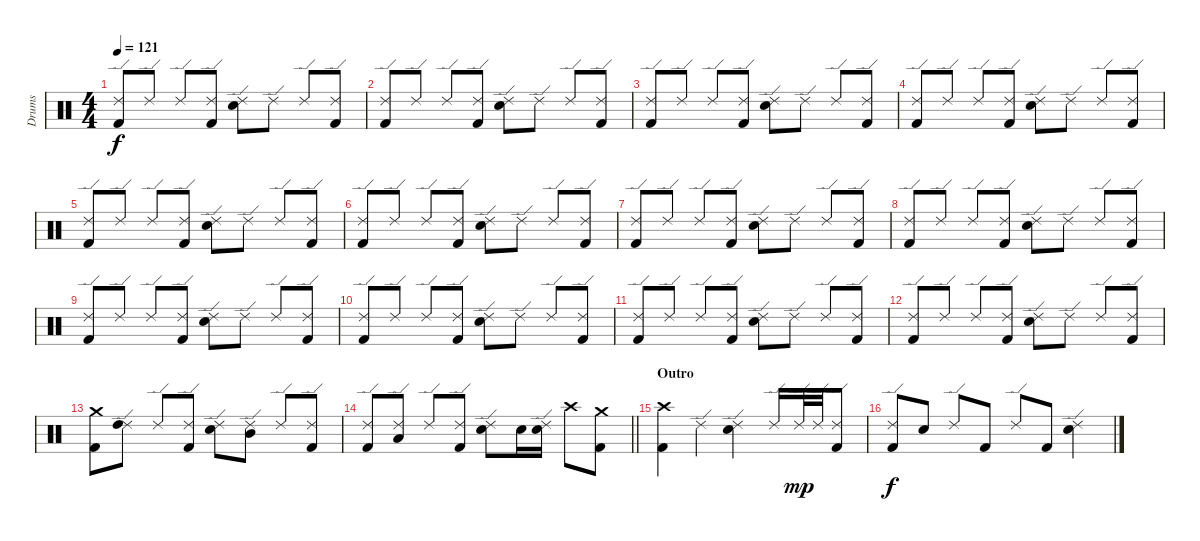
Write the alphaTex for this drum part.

\track ("Drums" "Drums") {instrument percussion}
\staff {score}
\articulation defaults
\ts (4 4)
\tempo 121
\clef neutral
\ks c
("Ride (edge) 2" "Kick (hit) 2").8{dy f} "Ride (edge) 2".8 "Ride (edge) 2".8 ("Ride (edge) 2" "Kick (hit) 2").8 ("Ride (edge) 2" "Electric Snare (hit)").8 "Ride (edge) 2".8 "Ride (edge) 2".8 ("Ride (edge) 2" "Kick (hit) 2").8 |
("Ride (edge) 2" "Kick (hit) 2").8 "Ride (edge) 2".8 "Ride (edge) 2".8 ("Ride (edge) 2" "Kick (hit) 2").8 ("Ride (edge) 2" "Electric Snare (hit)").8 "Ride (edge) 2".8 "Ride (edge) 2".8 ("Ride (edge) 2" "Kick (hit) 2").8 |
("Ride (edge) 2" "Kick (hit) 2").8 "Ride (edge) 2".8 "Ride (edge) 2".8 ("Ride (edge) 2" "Kick (hit) 2").8 ("Ride (edge) 2" "Electric Snare (hit)").8 "Ride (edge) 2".8 "Ride (edge) 2".8 ("Ride (edge) 2" "Kick (hit) 2").8 |
("Ride (edge) 2" "Kick (hit) 2").8 "Ride (edge) 2".8 "Ride (edge) 2".8 ("Ride (edge) 2" "Kick (hit) 2").8 ("Ride (edge) 2" "Electric Snare (hit)").8 "Ride (edge) 2".8 "Ride (edge) 2".8 ("Ride (edge) 2" "Kick (hit) 2").8 |
("Ride (edge) 2" "Kick (hit) 2").8 "Ride (edge) 2".8 "Ride (edge) 2".8 ("Ride (edge) 2" "Kick (hit) 2").8 ("Ride (edge) 2" "Electric Snare (hit)").8 "Ride (edge) 2".8 "Ride (edge) 2".8 ("Ride (edge) 2" "Kick (hit) 2").8 |
("Ride (edge) 2" "Kick (hit) 2").8 "Ride (edge) 2".8 "Ride (edge) 2".8 ("Ride (edge) 2" "Kick (hit) 2").8 ("Ride (edge) 2" "Electric Snare (hit)").8 "Ride (edge) 2".8 "Ride (edge) 2".8 ("Ride (edge) 2" "Kick (hit) 2").8 |
("Ride (edge) 2" "Kick (hit) 2").8 "Ride (edge) 2".8 "Ride (edge) 2".8 ("Ride (edge) 2" "Kick (hit) 2").8 ("Ride (edge) 2" "Electric Snare (hit)").8 "Ride (edge) 2".8 "Ride (edge) 2".8 ("Ride (edge) 2" "Kick (hit) 2").8 |
("Ride (edge) 2" "Kick (hit) 2").8 "Ride (edge) 2".8 "Ride (edge) 2".8 ("Ride (edge) 2" "Kick (hit) 2").8 ("Ride (edge) 2" "Electric Snare (hit)").8 "Ride (edge) 2".8 "Ride (edge) 2".8 ("Ride (edge) 2" "Kick (hit) 2").8 |
("Ride (edge) 2" "Kick (hit) 2").8 "Ride (edge) 2".8 "Ride (edge) 2".8 ("Ride (edge) 2" "Kick (hit) 2").8 ("Ride (edge) 2" "Electric Snare (hit)").8 "Ride (edge) 2".8 "Ride (edge) 2".8 ("Ride (edge) 2" "Kick (hit) 2").8 |
("Ride (edge) 2" "Kick (hit) 2").8 "Ride (edge) 2".8 "Ride (edge) 2".8 ("Ride (edge) 2" "Kick (hit) 2").8 ("Ride (edge) 2" "Electric Snare (hit)").8 "Ride (edge) 2".8 "Ride (edge) 2".8 ("Ride (edge) 2" "Kick (hit) 2").8 |
("Ride (edge) 2" "Kick (hit) 2").8 "Ride (edge) 2".8 "Ride (edge) 2".8 ("Ride (edge) 2" "Kick (hit) 2").8 ("Ride (edge) 2" "Electric Snare (hit)").8 "Ride (edge) 2".8 "Ride (edge) 2".8 ("Ride (edge) 2" "Kick (hit) 2").8 |
("Ride (edge) 2" "Kick (hit) 2").8 "Ride (edge) 2".8 "Ride (edge) 2".8 ("Ride (edge) 2" "Kick (hit) 2").8 ("Ride (edge) 2" "Electric Snare (hit)").8 "Ride (edge) 2".8 "Ride (edge) 2".8 ("Ride (edge) 2" "Kick (hit) 2").8 |
("Crash medium (hit)" "Kick (hit) 2").8 ("Ride (edge) 2" "High Tom (hit)").8 "Ride (edge) 2".8 ("Ride (edge) 2" "Kick (hit) 2").8 ("Ride (edge) 2" "Electric Snare (hit)").8 ("Ride (edge) 2" "Mid Tom (hit)").8 "Ride (edge) 2".8 ("Ride (edge) 2" "Kick (hit) 2").8 |
\barLineRight lightlight
("Ride (edge) 2" "Kick (hit) 2").8 ("Ride (edge) 2" "Low Tom (hit)").8 "Ride (edge) 2".8 ("Ride (edge) 2" "Kick (hit) 2").8 ("Ride (edge) 2" "Electric Snare (hit)").8 "Electric Snare (hit)".16 ("Ride (edge) 2" "Electric Snare (hit)").16 "Crash high (hit)".8 ("Crash medium (hit)" "Kick (hit) 2").8 |
\section ("" "Outro")
("Crash high (hit)" "Kick (hit) 2").4 "Ride (edge) 2".4 ("Ride (edge) 2" "Electric Snare (hit)").4 "Ride (edge) 2".16 "Ride (edge) 2".32{dy mp} "Ride (edge) 2".32 ("Ride (edge) 2" "Kick (hit) 2").8 |
("Ride (edge) 2" "Kick (hit) 2").8{dy f} "Electric Snare (hit)".8 "Ride (edge) 2".8 "Kick (hit) 2".8 "Ride (edge) 2".8 "Kick (hit) 2".8 ("Ride (edge) 2" "Electric Snare (hit)").4
